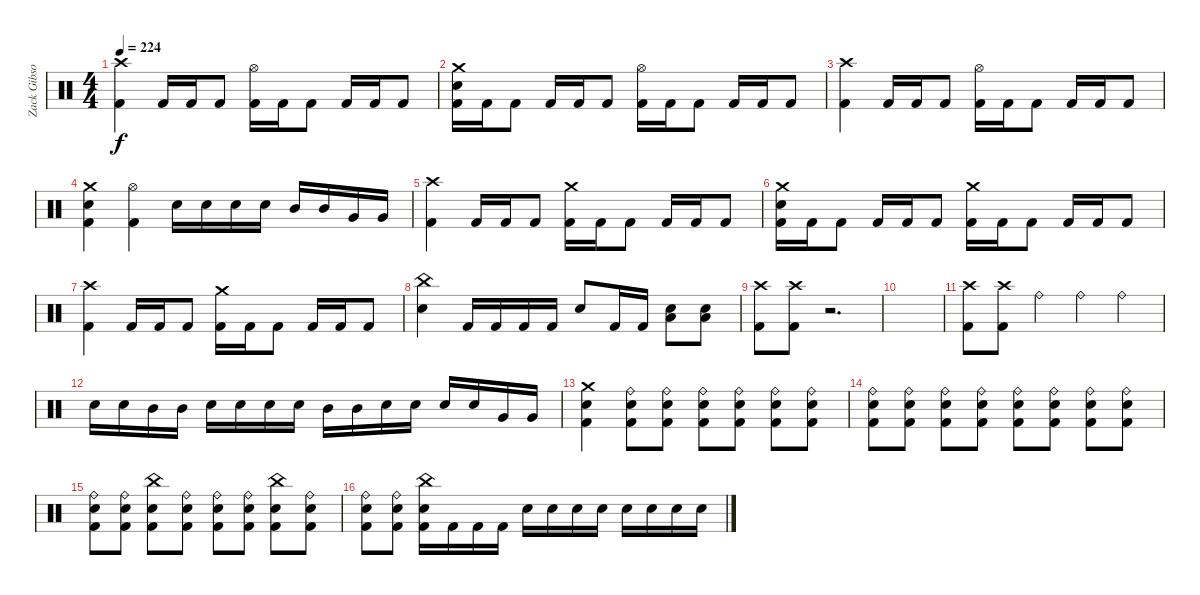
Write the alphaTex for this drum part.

\track ("Zack Gibson" "Zack Gibso") {instrument percussion}
\staff {score}
\articulation defaults
\ts (4 4)
\tempo 224
\clef neutral
\ks c
("Crash high (hit)" "Kick (hit) 2").4{dy f} "Kick (hit) 2".16 "Kick (hit) 2".16 "Kick (hit) 2".8 ("Hi-Hat (open)" "Kick (hit) 2").16 "Kick (hit) 2".16 "Kick (hit) 2".8 "Kick (hit) 2".16 "Kick (hit) 2".16 "Kick (hit) 2".8 |
("Snare (hit) 2" "Crash medium (hit)" "Kick (hit) 2").16 "Kick (hit) 2".16 "Kick (hit) 2".8 "Kick (hit) 2".16 "Kick (hit) 2".16 "Kick (hit) 2".8 ("Hi-Hat (open)" "Kick (hit) 2").16 "Kick (hit) 2".16 "Kick (hit) 2".8 "Kick (hit) 2".16 "Kick (hit) 2".16 "Kick (hit) 2".8 |
("Crash high (hit)" "Kick (hit) 2").4 "Kick (hit) 2".16 "Kick (hit) 2".16 "Kick (hit) 2".8 ("Hi-Hat (open)" "Kick (hit) 2").16 "Kick (hit) 2".16 "Kick (hit) 2".8 "Kick (hit) 2".16 "Kick (hit) 2".16 "Kick (hit) 2".8 |
("Crash medium (hit)" "Snare (hit) 2" "Kick (hit) 2").4 ("Hi-Hat (open)" "Kick (hit) 2").4 "Snare (hit) 2".16 "Snare (hit) 2".16 "Snare (hit) 2".16 "Snare (hit) 2".16 "Mid Tom (hit)".16 "Mid Tom (hit)".16 "Very Low Tom (hit)".16 "Very Low Tom (hit)".16 |
("Crash high (hit)" "Kick (hit) 2").4 "Kick (hit) 2".16 "Kick (hit) 2".16 "Kick (hit) 2".8 ("Crash medium (hit)" "Kick (hit) 2").16 "Kick (hit) 2".16 "Kick (hit) 2".8 "Kick (hit) 2".16 "Kick (hit) 2".16 "Kick (hit) 2".8 |
("Snare (hit) 2" "Crash medium (hit)" "Kick (hit) 2").16 "Kick (hit) 2".16 "Kick (hit) 2".8 "Kick (hit) 2".16 "Kick (hit) 2".16 "Kick (hit) 2".8 ("Crash medium (hit)" "Kick (hit) 2").16 "Kick (hit) 2".16 "Kick (hit) 2".8 "Kick (hit) 2".16 "Kick (hit) 2".16 "Kick (hit) 2".8 |
("Crash high (hit)" "Kick (hit) 2").4 "Kick (hit) 2".16 "Kick (hit) 2".16 "Kick (hit) 2".8 ("Crash medium (hit)" "Kick (hit) 2").16 "Kick (hit) 2".16 "Kick (hit) 2".8 "Kick (hit) 2".16 "Kick (hit) 2".16 "Kick (hit) 2".8 |
("China (hit)" "Snare (hit) 2").4 "Kick (hit) 2".16 "Kick (hit) 2".16 "Kick (hit) 2".16 "Kick (hit) 2".16 "Snare (hit) 2".8 "Kick (hit) 2".16 "Kick (hit) 2".16 ("Low Floor Tom (hit)" "Snare (hit) 2").8 ("Low Floor Tom (hit)" "Snare (hit) 2").8 |
("Crash high (hit)" "Kick (hit) 2").8 ("Crash high (hit)" "Kick (hit) 2").8 r.2{d} |
|
("Crash high (hit)" "Kick (hit) 2").8 ("Crash high (hit)" "Kick (hit) 2").8 "Ride (bell)".4 "Ride (bell)".4 "Ride (bell)".4 |
"Snare (hit) 2".16 "Snare (hit) 2".16 "Mid Tom (hit)".16 "Mid Tom (hit)".16 "Snare (hit) 2".16 "Snare (hit) 2".16 "Snare (hit) 2".16 "Snare (hit) 2".16 "Mid Tom (hit)".16 "Mid Tom (hit)".16 "Snare (hit) 2".16 "Snare (hit) 2".16 "Snare (hit) 2".16 "Snare (hit) 2".16 "Very Low Tom (hit)".16 "Very Low Tom (hit)".16 |
("Crash medium (hit)" "Snare (hit) 2" "Kick (hit) 2").4 ("Ride (bell)" "Snare (hit) 2" "Kick (hit) 2").8 ("Ride (bell)" "Snare (hit) 2" "Kick (hit) 2").8 ("Ride (bell)" "Snare (hit) 2" "Kick (hit) 2").8 ("Ride (bell)" "Snare (hit) 2" "Kick (hit) 2").8 ("Ride (bell)" "Snare (hit) 2" "Kick (hit) 2").8 ("Ride (bell)" "Snare (hit) 2" "Kick (hit) 2").8 |
("Ride (bell)" "Snare (hit) 2" "Kick (hit) 2").8 ("Ride (bell)" "Snare (hit) 2" "Kick (hit) 2").8 ("Ride (bell)" "Snare (hit) 2" "Kick (hit) 2").8 ("Ride (bell)" "Snare (hit) 2" "Kick (hit) 2").8 ("Ride (bell)" "Snare (hit) 2" "Kick (hit) 2").8 ("Ride (bell)" "Snare (hit) 2" "Kick (hit) 2").8 ("Ride (bell)" "Snare (hit) 2" "Kick (hit) 2").8 ("Ride (bell)" "Snare (hit) 2" "Kick (hit) 2").8 |
("Ride (bell)" "Snare (hit) 2" "Kick (hit) 2").8 ("Ride (bell)" "Snare (hit) 2" "Kick (hit) 2").8 ("China (hit)" "Snare (hit) 2" "Kick (hit) 2").8 ("Ride (bell)" "Snare (hit) 2" "Kick (hit) 2").8 ("Ride (bell)" "Snare (hit) 2" "Kick (hit) 2").8 ("Ride (bell)" "Snare (hit) 2" "Kick (hit) 2").8 ("China (hit)" "Snare (hit) 2" "Kick (hit) 2").8 ("Ride (bell)" "Snare (hit) 2" "Kick (hit) 2").8 |
("Ride (bell)" "Snare (hit) 2" "Kick (hit) 2").8 ("Ride (bell)" "Snare (hit) 2" "Kick (hit) 2").8 ("China (hit)" "Snare (hit) 2" "Kick (hit) 2").16 "Kick (hit) 2".16 "Kick (hit) 2".16 "Kick (hit) 2".16 "Snare (hit) 2".16 "Snare (hit) 2".16 "Snare (hit) 2".16 "Snare (hit) 2".16 "Snare (hit) 2".16 "Snare (hit) 2".16 "Snare (hit) 2".16 "Snare (hit) 2".16
